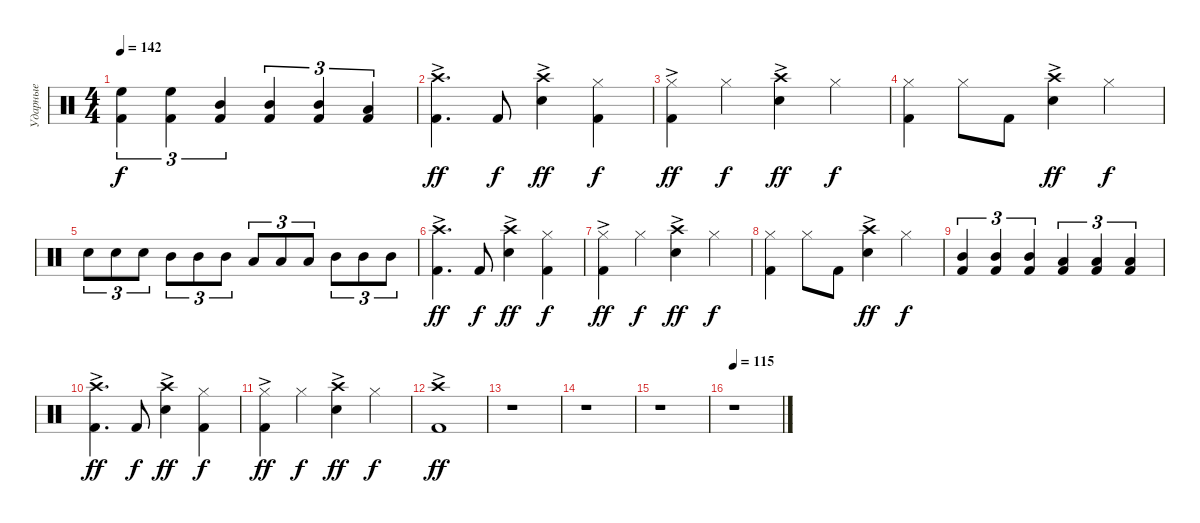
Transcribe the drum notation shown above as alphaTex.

\track ("Ударные" "Ударные") {instrument percussion}
\staff {score}
\articulation defaults
\ts (4 4)
\tempo 142
\clef neutral
\ks c
("Kick (hit) 2" "High Floor Tom (hit)").4{tu (3 2) dy f} ("Kick (hit) 2" "High Floor Tom (hit)").4{tu (3 2)} ("Kick (hit) 2" "Mid Tom (hit)").4{tu (3 2)} ("Kick (hit) 2" "Mid Tom (hit)").4{tu (3 2)} ("Kick (hit) 2" "Mid Tom (hit)").4{tu (3 2)} ("Kick (hit) 2" "Low Tom (hit)").4{tu (3 2)} |
("Kick (hit) 2" "Crash high (hit)"{ac}).4{d dy ff} "Kick (hit) 2".8{dy f} ("Snare (hit) 2" "Crash high (hit)"{ac}).4{dy ff} ("Kick (hit) 2" "Hi-Hat (closed)").4{dy f} |
("Kick (hit) 2" "Hi-Hat (closed)"{ac}).4{dy ff} "Hi-Hat (closed)".4{dy f} ("Snare (hit) 2" "Crash high (hit)"{ac}).4{dy ff} "Hi-Hat (closed)".4{dy f} |
("Kick (hit) 2" "Hi-Hat (closed)").4 "Hi-Hat (closed)".8 "Kick (hit) 2".8 ("Snare (hit) 2" "Crash high (hit)"{ac}).4{dy ff} "Hi-Hat (closed)".4{dy f} |
"Snare (hit) 2".8{tu (3 2)} "Snare (hit) 2".8{tu (3 2)} "Snare (hit) 2".8{tu (3 2)} "Mid Tom (hit)".8{tu (3 2)} "Mid Tom (hit)".8{tu (3 2)} "Mid Tom (hit)".8{tu (3 2)} "Low Tom (hit)".8{tu (3 2)} "Low Tom (hit)".8{tu (3 2)} "Low Tom (hit)".8{tu (3 2)} "Mid Tom (hit)".8{tu (3 2)} "Mid Tom (hit)".8{tu (3 2)} "Mid Tom (hit)".8{tu (3 2)} |
("Kick (hit) 2" "Crash high (hit)"{ac}).4{d dy ff} "Kick (hit) 2".8{dy f} ("Snare (hit) 2" "Crash high (hit)"{ac}).4{dy ff} ("Kick (hit) 2" "Hi-Hat (closed)").4{dy f} |
("Kick (hit) 2" "Hi-Hat (closed)"{ac}).4{dy ff} "Hi-Hat (closed)".4{dy f} ("Snare (hit) 2" "Crash high (hit)"{ac}).4{dy ff} "Hi-Hat (closed)".4{dy f} |
("Kick (hit) 2" "Hi-Hat (closed)").4 "Hi-Hat (closed)".8 "Kick (hit) 2".8 ("Snare (hit) 2" "Crash high (hit)"{ac}).4{dy ff} "Hi-Hat (closed)".4{dy f} |
("Mid Tom (hit)" "Kick (hit) 2").4{tu (3 2)} ("Mid Tom (hit)" "Kick (hit) 2").4{tu (3 2)} ("Mid Tom (hit)" "Kick (hit) 2").4{tu (3 2)} ("Low Tom (hit)" "Kick (hit) 2").4{tu (3 2)} ("Low Tom (hit)" "Kick (hit) 2").4{tu (3 2)} ("Low Tom (hit)" "Kick (hit) 2").4{tu (3 2)} |
("Kick (hit) 2" "Crash high (hit)"{ac}).4{d dy ff} "Kick (hit) 2".8{dy f} ("Snare (hit) 2" "Crash high (hit)"{ac}).4{dy ff} ("Kick (hit) 2" "Hi-Hat (closed)").4{dy f} |
("Kick (hit) 2" "Hi-Hat (closed)"{ac}).4{dy ff} "Hi-Hat (closed)".4{dy f} ("Snare (hit) 2" "Crash high (hit)"{ac}).4{dy ff} "Hi-Hat (closed)".4{dy f} |
("Kick (hit) 2" "Crash high (hit)"{ac}).1{dy ff} |
r.1 |
r.1 |
r.1 |
\tempo 115
r.1
